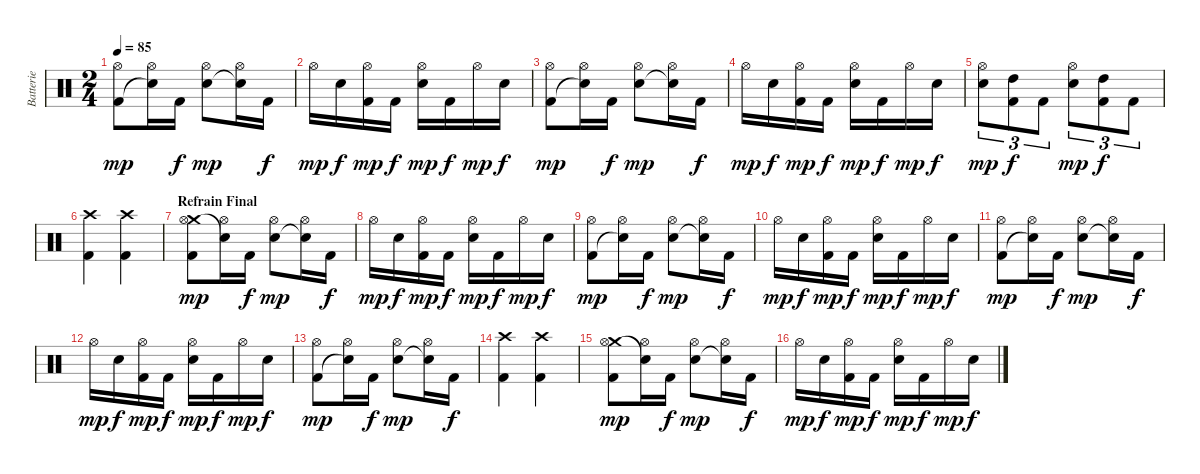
\track ("Batterie" "Batterie") {instrument percussion}
\staff {score}
\articulation defaults
\ts (2 4)
\tempo 85
\clef neutral
\ks c
("Hi-Hat (open)" "Kick (hit) 2").8{dy mp} ("Hi-Hat (open)" "Snare (hit)"{t}).16 "Kick (hit) 2".16{dy f} ("Electric Snare (hit)" "Hi-Hat (open)").8{dy mp} ("Snare (hit)"{t} "Hi-Hat (open)").16 "Kick (hit) 2".16{dy f} |
"Hi-Hat (open)".16{dy mp} "Electric Snare (hit)".16{dy f} ("Hi-Hat (open)" "Kick (hit) 2").16{dy mp} "Kick (hit) 2".16{dy f} ("Electric Snare (hit)" "Hi-Hat (open)").16{dy mp} "Kick (hit) 2".16{dy f} "Hi-Hat (open)".16{dy mp} "Electric Snare (hit)".16{dy f} |
("Hi-Hat (open)" "Kick (hit) 2").8{dy mp} ("Hi-Hat (open)" "Snare (hit)"{t}).16 "Kick (hit) 2".16{dy f} ("Electric Snare (hit)" "Hi-Hat (open)").8{dy mp} ("Snare (hit)"{t} "Hi-Hat (open)").16 "Kick (hit) 2".16{dy f} |
"Hi-Hat (open)".16{dy mp} "Electric Snare (hit)".16{dy f} ("Hi-Hat (open)" "Kick (hit) 2").16{dy mp} "Kick (hit) 2".16{dy f} ("Electric Snare (hit)" "Hi-Hat (open)").16{dy mp} "Kick (hit) 2".16{dy f} "Hi-Hat (open)".16{dy mp} "Electric Snare (hit)".16{dy f} |
("Hi-Hat (open)" "Electric Snare (hit)").8{tu (3 2) dy mp} ("High Tom (hit)" "Kick (hit) 2").8{tu (3 2) dy f} "Kick (hit) 2".8{tu (3 2)} ("Hi-Hat (open)" "Electric Snare (hit)").8{tu (3 2) dy mp} ("High Tom (hit)" "Kick (hit) 2").8{tu (3 2) dy f} "Kick (hit) 2".8{tu (3 2)} |
("Crash high (hit)" "Kick (hit) 2").4 ("Crash high (hit)" "Kick (hit) 2").4 |
\section ("" "Refrain Final")
("Crash medium (hit)" "Hi-Hat (open)" "Kick (hit) 2").8{dy mp} ("Hi-Hat (open)" "Snare (hit)"{t}).16 "Kick (hit) 2".16{dy f} ("Electric Snare (hit)" "Hi-Hat (open)").8{dy mp} ("Snare (hit)"{t} "Hi-Hat (open)").16 "Kick (hit) 2".16{dy f} |
"Hi-Hat (open)".16{dy mp} "Electric Snare (hit)".16{dy f} ("Hi-Hat (open)" "Kick (hit) 2").16{dy mp} "Kick (hit) 2".16{dy f} ("Electric Snare (hit)" "Hi-Hat (open)").16{dy mp} "Kick (hit) 2".16{dy f} "Hi-Hat (open)".16{dy mp} "Electric Snare (hit)".16{dy f} |
("Hi-Hat (open)" "Kick (hit) 2").8{dy mp} ("Hi-Hat (open)" "Snare (hit)"{t}).16 "Kick (hit) 2".16{dy f} ("Electric Snare (hit)" "Hi-Hat (open)").8{dy mp} ("Snare (hit)"{t} "Hi-Hat (open)").16 "Kick (hit) 2".16{dy f} |
"Hi-Hat (open)".16{dy mp} "Electric Snare (hit)".16{dy f} ("Hi-Hat (open)" "Kick (hit) 2").16{dy mp} "Kick (hit) 2".16{dy f} ("Electric Snare (hit)" "Hi-Hat (open)").16{dy mp} "Kick (hit) 2".16{dy f} "Hi-Hat (open)".16{dy mp} "Electric Snare (hit)".16{dy f} |
("Hi-Hat (open)" "Kick (hit) 2").8{dy mp} ("Hi-Hat (open)" "Snare (hit)"{t}).16 "Kick (hit) 2".16{dy f} ("Electric Snare (hit)" "Hi-Hat (open)").8{dy mp} ("Snare (hit)"{t} "Hi-Hat (open)").16 "Kick (hit) 2".16{dy f} |
"Hi-Hat (open)".16{dy mp} "Electric Snare (hit)".16{dy f} ("Hi-Hat (open)" "Kick (hit) 2").16{dy mp} "Kick (hit) 2".16{dy f} ("Electric Snare (hit)" "Hi-Hat (open)").16{dy mp} "Kick (hit) 2".16{dy f} "Hi-Hat (open)".16{dy mp} "Electric Snare (hit)".16{dy f} |
("Hi-Hat (open)" "Kick (hit) 2").8{dy mp} ("Hi-Hat (open)" "Snare (hit)"{t}).16 "Kick (hit) 2".16{dy f} ("Electric Snare (hit)" "Hi-Hat (open)").8{dy mp} ("Snare (hit)"{t} "Hi-Hat (open)").16 "Kick (hit) 2".16{dy f} |
("Crash high (hit)" "Kick (hit) 2").4 ("Crash high (hit)" "Kick (hit) 2").4 |
("Crash medium (hit)" "Hi-Hat (open)" "Kick (hit) 2").8{dy mp} ("Hi-Hat (open)" "Snare (hit)"{t}).16 "Kick (hit) 2".16{dy f} ("Electric Snare (hit)" "Hi-Hat (open)").8{dy mp} ("Snare (hit)"{t} "Hi-Hat (open)").16 "Kick (hit) 2".16{dy f} |
"Hi-Hat (open)".16{dy mp} "Electric Snare (hit)".16{dy f} ("Hi-Hat (open)" "Kick (hit) 2").16{dy mp} "Kick (hit) 2".16{dy f} ("Electric Snare (hit)" "Hi-Hat (open)").16{dy mp} "Kick (hit) 2".16{dy f} "Hi-Hat (open)".16{dy mp} "Electric Snare (hit)".16{dy f}
